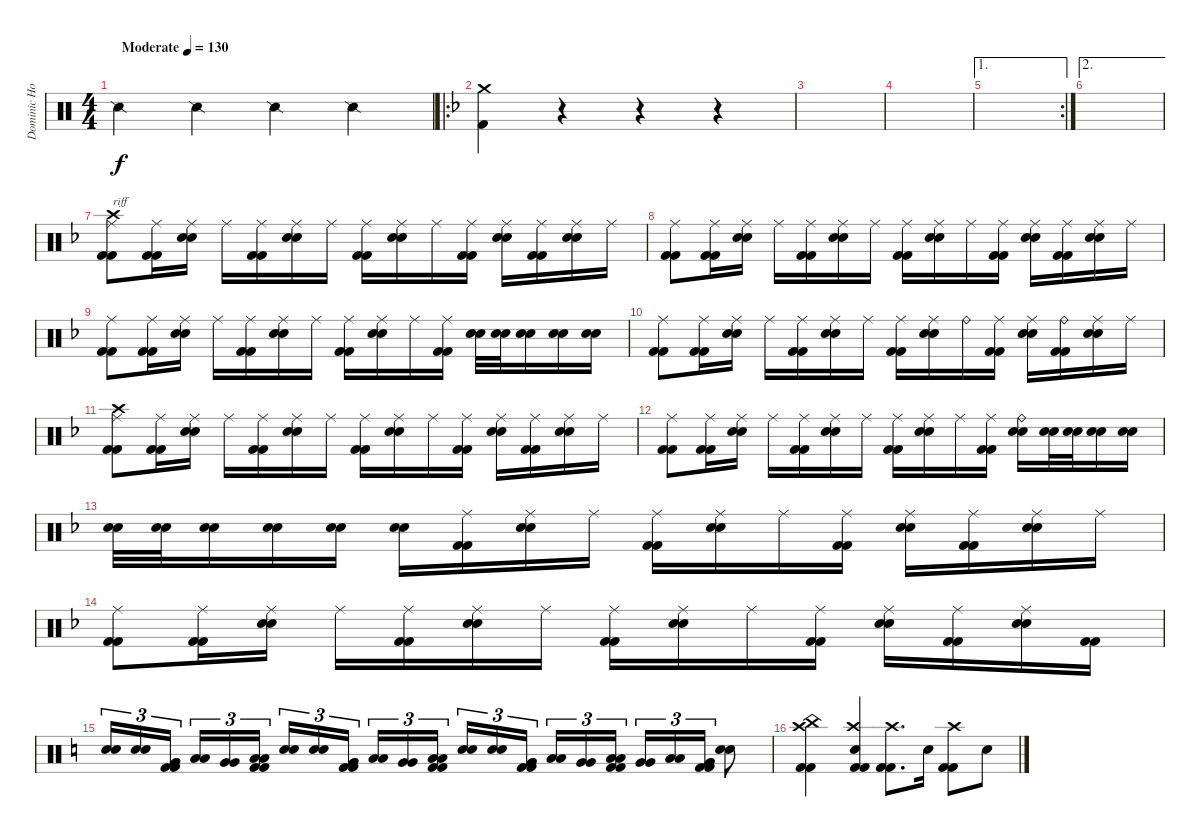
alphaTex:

\track ("Dominic Howard" "Dominic Ho") {instrument percussion}
\staff {score}
\articulation defaults
\ts (4 4)
\tempo (130 "Moderate")
\clef neutral
\ks c "Snare (side stick) 2".4{dy f} "Snare (side stick) 2".4 "Snare (side stick) 2".4 "Snare (side stick) 2".4
|
\ro
\ks f
("Crash medium (hit)" "Kick (hit) 2").4 r.4 r.4 r.4 |
|
|
\ae 1
\rc 2
|
\ae 2
|
("Crash high (hit)" "Ride (middle)" "Kick (hit) 2" "Kick (hit) 2").8{txt "riff"} ("Ride (middle)" "Kick (hit) 2" "Kick (hit) 2").16 ("Ride (middle)" "Electric Snare (hit)" "Electric Snare (hit)").16 "Ride (middle)".16 ("Ride (middle)" "Kick (hit) 2" "Kick (hit) 2").16 ("Ride (middle)" "Electric Snare (hit)" "Electric Snare (hit)").16 "Ride (middle)".16 ("Ride (middle)" "Kick (hit) 2" "Kick (hit) 2").16 ("Ride (middle)" "Electric Snare (hit)" "Electric Snare (hit)").16 "Ride (middle)".16 ("Ride (middle)" "Kick (hit) 2" "Kick (hit) 2").16 ("Ride (middle)" "Electric Snare (hit)" "Electric Snare (hit)").16 ("Ride (middle)" "Kick (hit) 2" "Kick (hit) 2").16 ("Ride (middle)" "Electric Snare (hit)" "Electric Snare (hit)").16 "Ride (middle)".16 |
("Ride (middle)" "Kick (hit) 2" "Kick (hit) 2").8 ("Ride (middle)" "Kick (hit) 2" "Kick (hit) 2").16 ("Ride (middle)" "Electric Snare (hit)" "Electric Snare (hit)").16 "Ride (middle)".16 ("Ride (middle)" "Kick (hit) 2" "Kick (hit) 2").16 ("Ride (middle)" "Electric Snare (hit)" "Electric Snare (hit)").16 "Ride (middle)".16 ("Ride (middle)" "Kick (hit) 2" "Kick (hit) 2").16 ("Ride (middle)" "Electric Snare (hit)" "Electric Snare (hit)").16 "Ride (middle)".16 ("Ride (middle)" "Kick (hit) 2" "Kick (hit) 2").16 ("Ride (middle)" "Electric Snare (hit)" "Electric Snare (hit)").16 ("Ride (middle)" "Kick (hit) 2" "Kick (hit) 2").16 ("Ride (middle)" "Electric Snare (hit)" "Electric Snare (hit)").16 "Ride (middle)".16 |
("Ride (middle)" "Kick (hit) 2" "Kick (hit) 2").8 ("Ride (middle)" "Kick (hit) 2" "Kick (hit) 2").16 ("Ride (middle)" "Electric Snare (hit)" "Electric Snare (hit)").16 "Ride (middle)".16 ("Ride (middle)" "Kick (hit) 2" "Kick (hit) 2").16 ("Ride (middle)" "Electric Snare (hit)" "Electric Snare (hit)").16 "Ride (middle)".16 ("Ride (middle)" "Kick (hit) 2" "Kick (hit) 2").16 ("Ride (middle)" "Electric Snare (hit)" "Electric Snare (hit)").16 "Ride (middle)".16 ("Ride (middle)" "Kick (hit) 2" "Kick (hit) 2").16 ("Electric Snare (hit)" "Electric Snare (hit)").32 ("Electric Snare (hit)" "Electric Snare (hit)").32 ("Electric Snare (hit)" "Electric Snare (hit)").16 ("Electric Snare (hit)" "Electric Snare (hit)").16 ("Electric Snare (hit)" "Electric Snare (hit)").16 |
("Ride (middle)" "Kick (hit) 2" "Kick (hit) 2").8 ("Ride (middle)" "Kick (hit) 2" "Kick (hit) 2").16 ("Ride (middle)" "Electric Snare (hit)" "Electric Snare (hit)").16 "Ride (middle)".16 ("Ride (middle)" "Kick (hit) 2" "Kick (hit) 2").16 ("Ride (middle)" "Electric Snare (hit)" "Electric Snare (hit)").16 "Ride (middle)".16 ("Ride (middle)" "Kick (hit) 2" "Kick (hit) 2").16 ("Ride (middle)" "Electric Snare (hit)" "Electric Snare (hit)").16 "Ride (bell)".16 ("Ride (middle)" "Kick (hit) 2" "Kick (hit) 2").16 ("Ride (middle)" "Electric Snare (hit)" "Electric Snare (hit)").16 ("Ride (bell)" "Kick (hit) 2" "Kick (hit) 2").16 ("Ride (middle)" "Electric Snare (hit)" "Electric Snare (hit)").16 "Ride (middle)".16 |
("Crash high (hit)" "Ride (middle)" "Kick (hit) 2" "Kick (hit) 2").8 ("Ride (middle)" "Kick (hit) 2" "Kick (hit) 2").16 ("Ride (middle)" "Electric Snare (hit)" "Electric Snare (hit)").16 "Ride (middle)".16 ("Ride (middle)" "Kick (hit) 2" "Kick (hit) 2").16 ("Ride (middle)" "Electric Snare (hit)" "Electric Snare (hit)").16 "Ride (middle)".16 ("Ride (middle)" "Kick (hit) 2" "Kick (hit) 2").16 ("Ride (middle)" "Electric Snare (hit)" "Electric Snare (hit)").16 "Ride (middle)".16 ("Ride (middle)" "Kick (hit) 2" "Kick (hit) 2").16 ("Ride (middle)" "Electric Snare (hit)" "Electric Snare (hit)").16 ("Ride (middle)" "Kick (hit) 2" "Kick (hit) 2").16 ("Ride (middle)" "Electric Snare (hit)" "Electric Snare (hit)").16 "Ride (middle)".16 |
("Ride (middle)" "Kick (hit) 2" "Kick (hit) 2").8 ("Ride (middle)" "Kick (hit) 2" "Kick (hit) 2").16 ("Ride (middle)" "Electric Snare (hit)" "Electric Snare (hit)").16 "Ride (middle)".16 ("Ride (middle)" "Kick (hit) 2" "Kick (hit) 2").16 ("Ride (middle)" "Electric Snare (hit)" "Electric Snare (hit)").16 "Ride (middle)".16 ("Ride (middle)" "Kick (hit) 2" "Kick (hit) 2").16 ("Ride (middle)" "Electric Snare (hit)" "Electric Snare (hit)").16 "Ride (middle)".16 ("Ride (middle)" "Kick (hit) 2" "Kick (hit) 2").16 ("Ride (bell)" "Electric Snare (hit)" "Electric Snare (hit)").16 ("Electric Snare (hit)" "Electric Snare (hit)").32 ("Electric Snare (hit)" "Electric Snare (hit)").32 ("Electric Snare (hit)" "Electric Snare (hit)").16 ("Electric Snare (hit)" "Electric Snare (hit)").16 |
("Electric Snare (hit)" "Electric Snare (hit)").32 ("Electric Snare (hit)" "Electric Snare (hit)").32 ("Electric Snare (hit)" "Electric Snare (hit)").16 ("Electric Snare (hit)" "Electric Snare (hit)").16 ("Electric Snare (hit)" "Electric Snare (hit)").16 ("Electric Snare (hit)" "Electric Snare (hit)").16 ("Ride (middle)" "Kick (hit) 2" "Kick (hit) 2").16 ("Ride (middle)" "Electric Snare (hit)" "Electric Snare (hit)").16 "Ride (middle)".16 ("Ride (middle)" "Kick (hit) 2" "Kick (hit) 2").16 ("Ride (middle)" "Electric Snare (hit)" "Electric Snare (hit)").16 "Ride (middle)".16 ("Ride (middle)" "Kick (hit) 2" "Kick (hit) 2").16 ("Ride (middle)" "Electric Snare (hit)" "Electric Snare (hit)").16 ("Ride (middle)" "Kick (hit) 2" "Kick (hit) 2").16 ("Ride (middle)" "Electric Snare (hit)" "Electric Snare (hit)").16 "Ride (middle)".16 |
("Ride (middle)" "Kick (hit) 2" "Kick (hit) 2").8 ("Ride (middle)" "Kick (hit) 2" "Kick (hit) 2").16 ("Ride (middle)" "Electric Snare (hit)" "Electric Snare (hit)").16 "Ride (middle)".16 ("Ride (middle)" "Kick (hit) 2" "Kick (hit) 2").16 ("Ride (middle)" "Electric Snare (hit)" "Electric Snare (hit)").16 "Ride (middle)".16 ("Ride (middle)" "Kick (hit) 2" "Kick (hit) 2").16 ("Ride (middle)" "Electric Snare (hit)" "Electric Snare (hit)").16 "Ride (middle)".16 ("Ride (middle)" "Kick (hit) 2" "Kick (hit) 2").16 ("Ride (middle)" "Electric Snare (hit)" "Electric Snare (hit)").16 ("Ride (middle)" "Kick (hit) 2" "Kick (hit) 2").16 ("Ride (middle)" "Electric Snare (hit)" "Electric Snare (hit)").16 ("Kick (hit) 2" "Kick (hit) 2").16 |
\ks c
("Electric Snare (hit)" "Electric Snare (hit)").16{tu (3 2)} ("Electric Snare (hit)" "Electric Snare (hit)").16{tu (3 2)} ("Very Low Tom (hit)" "Kick (hit) 2" "Kick (hit) 2" "Very Low Tom (hit)").16{tu (3 2) beam splitsecondary} ("Low Tom (hit)" "Low Tom (hit)").16{tu (3 2)} ("Very Low Tom (hit)" "Very Low Tom (hit)").16{tu (3 2)} ("Low Tom (hit)" "Kick (hit) 2" "Kick (hit) 2" "Low Tom (hit)").16{tu (3 2)} ("Electric Snare (hit)" "Electric Snare (hit)").16{tu (3 2)} ("Electric Snare (hit)" "Electric Snare (hit)").16{tu (3 2)} ("Very Low Tom (hit)" "Kick (hit) 2" "Kick (hit) 2" "Very Low Tom (hit)").16{tu (3 2) beam splitsecondary} ("Low Tom (hit)" "Low Tom (hit)").16{tu (3 2)} ("Very Low Tom (hit)" "Very Low Tom (hit)").16{tu (3 2)} ("Low Tom (hit)" "Kick (hit) 2" "Kick (hit) 2" "Low Tom (hit)").16{tu (3 2)} ("Electric Snare (hit)" "Electric Snare (hit)").16{tu (3 2)} ("Electric Snare (hit)" "Electric Snare (hit)").16{tu (3 2)} ("Very Low Tom (hit)" "Kick (hit) 2" "Very Low Tom (hit)" "Kick (hit) 2").16{tu (3 2) beam splitsecondary} ("Low Tom (hit)" "Low Tom (hit)").16{tu (3 2)} ("Very Low Tom (hit)" "Very Low Tom (hit)").16{tu (3 2)} ("Low Tom (hit)" "Kick (hit) 2" "Low Tom (hit)" "Kick (hit) 2").16{tu (3 2)} ("Very Low Tom (hit)" "Very Low Tom (hit)").16{tu (3 2)} ("Low Tom (hit)" "Low Tom (hit)").16{tu (3 2)} ("Very Low Tom (hit)" "Kick (hit) 2" "Very Low Tom (hit)" "Kick (hit) 2").16{tu (3 2)} ("Electric Snare (hit)" "Electric Snare (hit)").8 |
("Crash high (hit)" "China (hit)" "Kick (hit) 2" "Kick (hit) 2").4 ("Kick (hit) 2" "Crash high (hit)" "Electric Snare (hit)" "Kick (hit) 2").4 ("Crash high (hit)" "Kick (hit) 2" "Kick (hit) 2").8{d} "Electric Snare (hit)".16 ("Crash high (hit)" "Kick (hit) 2" "Kick (hit) 2").8 "Electric Snare (hit)".8
